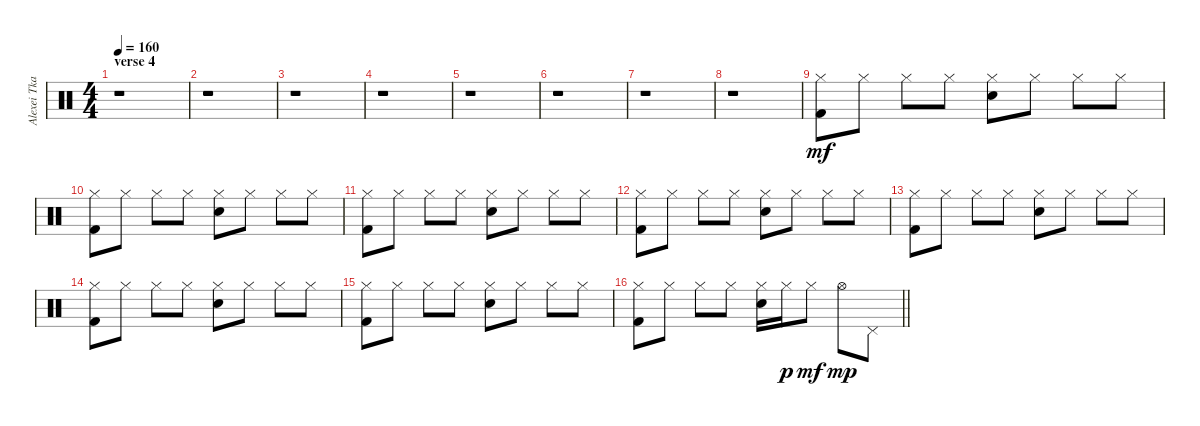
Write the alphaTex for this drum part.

\track ("Alexei Tkachevskiy " "Alexei Tka") {instrument percussion}
\staff {score}
\articulation defaults
\ts (4 4)
\section ("" "verse 4")
\tempo 160
\clef neutral
\ks c
r.1{dy f} |
r.1 |
r.1 |
r.1 |
r.1 |
r.1 |
r.1 |
r.1 |
("Hi-Hat (closed)" "Kick (hit) 2").8{dy mf} "Hi-Hat (closed)".8 "Hi-Hat (closed)".8 "Hi-Hat (closed)".8 ("Hi-Hat (closed)" "Snare (hit) 2").8 "Hi-Hat (closed)".8 "Hi-Hat (closed)".8 "Hi-Hat (closed)".8 |
("Hi-Hat (closed)" "Kick (hit) 2").8 "Hi-Hat (closed)".8 "Hi-Hat (closed)".8 "Hi-Hat (closed)".8 ("Hi-Hat (closed)" "Snare (hit) 2").8 "Hi-Hat (closed)".8 "Hi-Hat (closed)".8 "Hi-Hat (closed)".8 |
("Hi-Hat (closed)" "Kick (hit) 2").8 "Hi-Hat (closed)".8 "Hi-Hat (closed)".8 "Hi-Hat (closed)".8 ("Hi-Hat (closed)" "Snare (hit) 2").8 "Hi-Hat (closed)".8 "Hi-Hat (closed)".8 "Hi-Hat (closed)".8 |
("Hi-Hat (closed)" "Kick (hit) 2").8 "Hi-Hat (closed)".8 "Hi-Hat (closed)".8 "Hi-Hat (closed)".8 ("Hi-Hat (closed)" "Snare (hit) 2").8 "Hi-Hat (closed)".8 "Hi-Hat (closed)".8 "Hi-Hat (closed)".8 |
("Hi-Hat (closed)" "Kick (hit) 2").8 "Hi-Hat (closed)".8 "Hi-Hat (closed)".8 "Hi-Hat (closed)".8 ("Hi-Hat (closed)" "Snare (hit) 2").8 "Hi-Hat (closed)".8 "Hi-Hat (closed)".8 "Hi-Hat (closed)".8 |
("Hi-Hat (closed)" "Kick (hit) 2").8 "Hi-Hat (closed)".8 "Hi-Hat (closed)".8 "Hi-Hat (closed)".8 ("Hi-Hat (closed)" "Snare (hit) 2").8 "Hi-Hat (closed)".8 "Hi-Hat (closed)".8 "Hi-Hat (closed)".8 |
("Hi-Hat (closed)" "Kick (hit) 2").8 "Hi-Hat (closed)".8 "Hi-Hat (closed)".8 "Hi-Hat (closed)".8 ("Hi-Hat (closed)" "Snare (hit) 2").8 "Hi-Hat (closed)".8 "Hi-Hat (closed)".8 "Hi-Hat (closed)".8 |
\barLineRight lightlight
("Hi-Hat (closed)" "Kick (hit) 2").8 "Hi-Hat (closed)".8 "Hi-Hat (closed)".8 "Hi-Hat (closed)".8 ("Hi-Hat (closed)" "Snare (hit) 2").16 "Hi-Hat (closed)".16{dy p} "Hi-Hat (closed)".8{dy mf} "Hi-Hat (open)".8{dy mp} "Pedal Hi-Hat (hit)".8
